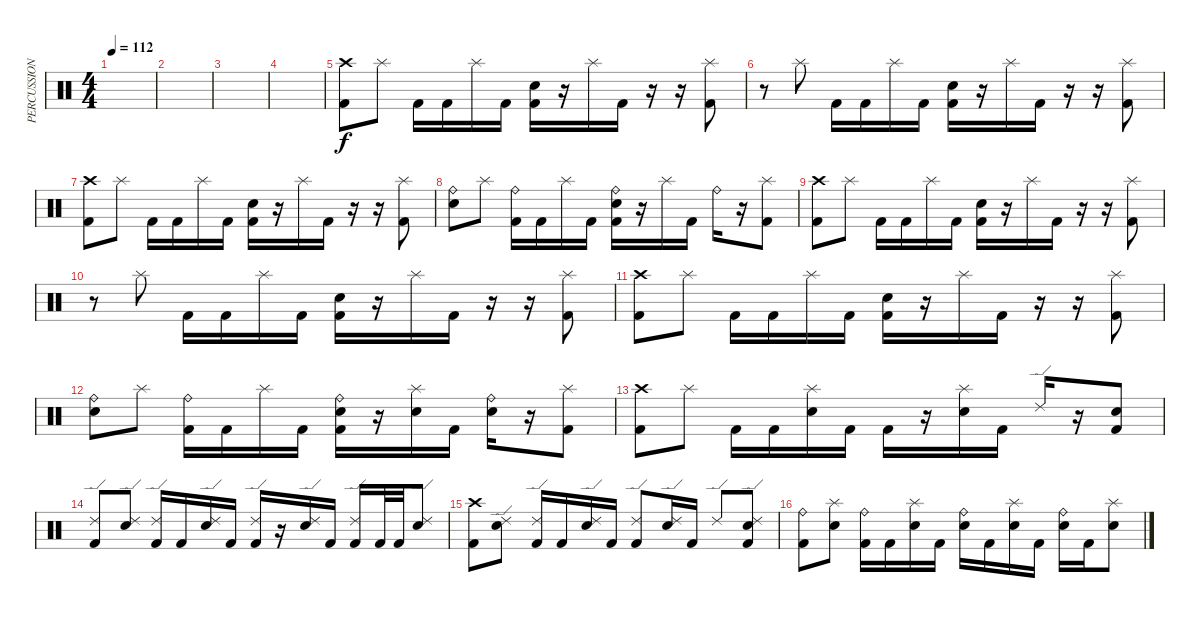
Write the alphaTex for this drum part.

\track ("PERCUSSION" "PERCUSSION") {instrument percussion}
\staff {score}
\articulation defaults
\ts (4 4)
\tempo 112
\clef neutral
\ks c
|
|
|
|
("Crash high (hit)" "Kick (hit) 2").8 "Splash (hit)".8 "Kick (hit) 2".16 "Kick (hit) 2".16 "Splash (hit)".16 "Kick (hit) 2".16 ("Electric Snare (hit)" "Kick (hit) 2").16 r.16 "Splash (hit)".16 "Kick (hit) 2".16 r.16 r.16 ("Splash (hit)" "Kick (hit) 2").8 |
r.8 "Splash (hit)".8 "Kick (hit) 2".16 "Kick (hit) 2".16 "Splash (hit)".16 "Kick (hit) 2".16 ("Electric Snare (hit)" "Kick (hit) 2").16 r.16 "Splash (hit)".16 "Kick (hit) 2".16 r.16 r.16 ("Splash (hit)" "Kick (hit) 2").8 |
("Crash high (hit)" "Kick (hit) 2").8 "Splash (hit)".8 "Kick (hit) 2".16 "Kick (hit) 2".16 "Splash (hit)".16 "Kick (hit) 2".16 ("Electric Snare (hit)" "Kick (hit) 2").16 r.16 "Splash (hit)".16 "Kick (hit) 2".16 r.16 r.16 ("Splash (hit)" "Kick (hit) 2").8 |
("Ride (bell)" "Electric Snare (hit)").8 "Splash (hit)".8 ("Ride (bell)" "Kick (hit) 2").16 "Kick (hit) 2".16 "Splash (hit)".16 "Kick (hit) 2".16 ("Ride (bell)" "Electric Snare (hit)" "Kick (hit) 2").16 r.16 "Splash (hit)".16 "Kick (hit) 2".16 "Ride (bell)".16 r.16 ("Splash (hit)" "Kick (hit) 2").8 |
("Crash high (hit)" "Kick (hit) 2").8 "Splash (hit)".8 "Kick (hit) 2".16 "Kick (hit) 2".16 "Splash (hit)".16 "Kick (hit) 2".16 ("Electric Snare (hit)" "Kick (hit) 2").16 r.16 "Splash (hit)".16 "Kick (hit) 2".16 r.16 r.16 ("Splash (hit)" "Kick (hit) 2").8 |
r.8 "Splash (hit)".8 "Kick (hit) 2".16 "Kick (hit) 2".16 "Splash (hit)".16 "Kick (hit) 2".16 ("Electric Snare (hit)" "Kick (hit) 2").16 r.16 "Splash (hit)".16 "Kick (hit) 2".16 r.16 r.16 ("Splash (hit)" "Kick (hit) 2").8 |
("Crash high (hit)" "Kick (hit) 2").8 "Splash (hit)".8 "Kick (hit) 2".16 "Kick (hit) 2".16 "Splash (hit)".16 "Kick (hit) 2".16 ("Electric Snare (hit)" "Kick (hit) 2").16 r.16 "Splash (hit)".16 "Kick (hit) 2".16 r.16 r.16 ("Splash (hit)" "Kick (hit) 2").8 |
("Ride (bell)" "Electric Snare (hit)").8 "Splash (hit)".8 ("Ride (bell)" "Kick (hit) 2").16 "Kick (hit) 2".16 "Splash (hit)".16 "Kick (hit) 2".16 ("Ride (bell)" "Electric Snare (hit)" "Kick (hit) 2").16 r.16 ("Splash (hit)" "Electric Snare (hit)").16 "Kick (hit) 2".16 ("Ride (bell)" "Electric Snare (hit)").16 r.16 ("Splash (hit)" "Kick (hit) 2").8 |
("Crash high (hit)" "Kick (hit) 2").8 "Splash (hit)".8 "Kick (hit) 2".16 "Kick (hit) 2".16 ("Splash (hit)" "Electric Snare (hit)").16 "Kick (hit) 2".16 "Kick (hit) 2".16 r.16 ("Splash (hit)" "Electric Snare (hit)").16 "Kick (hit) 2".16 "Ride (edge) 2".16 r.16 ("Electric Snare (hit)" "Kick (hit) 2").8 |
("Ride (edge) 2" "Kick (hit) 2").8 ("Ride (edge) 2" "Electric Snare (hit)").8 ("Ride (edge) 2" "Kick (hit) 2").16 "Kick (hit) 2".16 ("Ride (edge) 2" "Electric Snare (hit)").16 "Kick (hit) 2".16 ("Ride (edge) 2" "Kick (hit) 2").16 r.16 ("Ride (edge) 2" "Electric Snare (hit)").16 "Kick (hit) 2".16 ("Ride (edge) 2" "Kick (hit) 2").16 "Kick (hit) 2".32 "Kick (hit) 2".32 ("Ride (edge) 2" "Electric Snare (hit)").8 |
("Crash high (hit)" "Kick (hit) 2").8 ("Ride (edge) 2" "Electric Snare (hit)").8 ("Ride (edge) 2" "Kick (hit) 2").16 "Kick (hit) 2".16 ("Ride (edge) 2" "Electric Snare (hit)").16 "Kick (hit) 2".16 ("Ride (edge) 2" "Kick (hit) 2").8 ("Ride (edge) 2" "Electric Snare (hit)").16 "Kick (hit) 2".16 "Ride (edge) 2".8 ("Ride (edge) 2" "Electric Snare (hit)" "Kick (hit) 2").8 |
("Ride (bell)" "Kick (hit) 2").8 ("Splash (hit)" "Electric Snare (hit)").8 ("Ride (bell)" "Kick (hit) 2").16 "Kick (hit) 2".16 ("Splash (hit)" "Electric Snare (hit)").16 "Kick (hit) 2".16 ("Ride (bell)" "Electric Snare (hit)").16 "Kick (hit) 2".16 ("Splash (hit)" "Electric Snare (hit)").16 "Kick (hit) 2".16 ("Ride (bell)" "Electric Snare (hit)").16 "Kick (hit) 2".16 ("Splash (hit)" "Electric Snare (hit)").8
